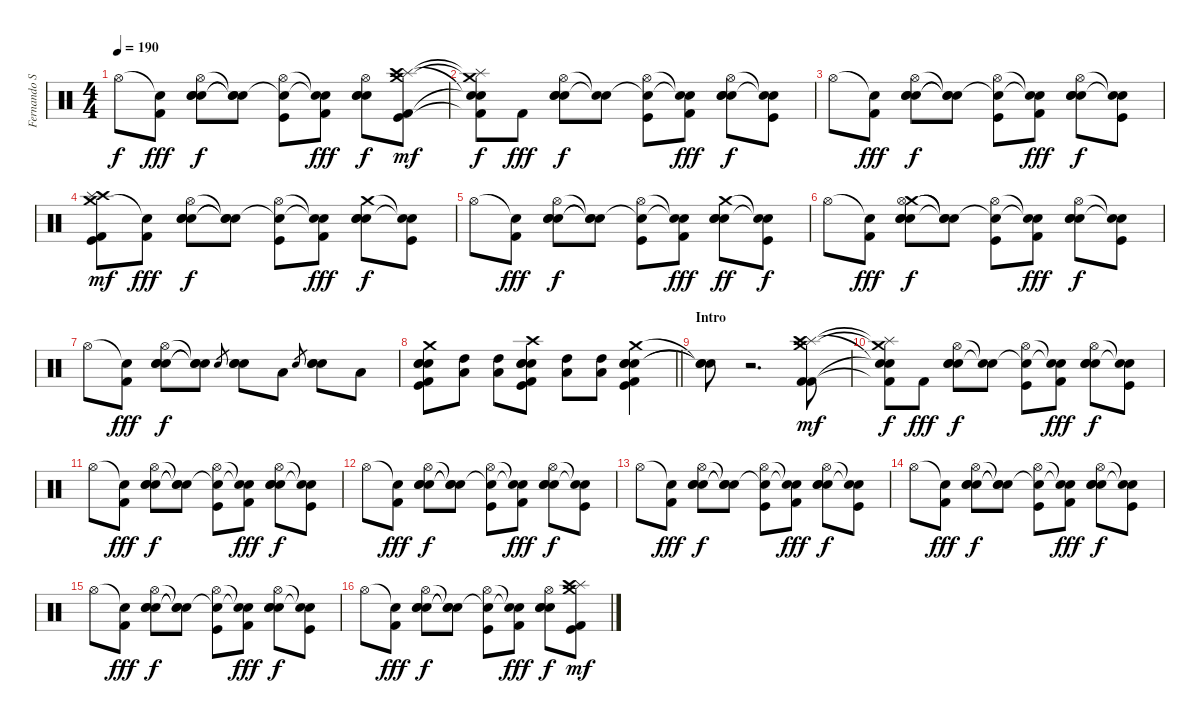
\track ("Fernando Sarcella" "Fernando S") {instrument percussion}
\staff {score}
\articulation defaults
\ts (4 4)
\tempo 190
\clef neutral
\ks c "Hi-Hat (open)".8{dy f}
("Snare (hit)"{t} "Kick (hit) 2").8{dy fff} ("Hi-Hat (open)" "Electric Snare (hit)" "Electric Snare (hit)" "Electric Snare (hit)").8{dy f} ("Snare (hit)"{t} "Snare (hit)"{t} "Snare (hit)"{t}).8 ("Hi-Hat (open)" "Snare (hit)"{t} "Kick (hit)").8 ("Snare (hit)"{t} "Snare (hit)"{t} "Kick (hit) 2").8{dy fff} ("Hi-Hat (open)" "Electric Snare (hit)" "Electric Snare (hit)" "Electric Snare (hit)").8{dy f} ("Crash medium (hit)" "Splash (hit)" "Crash high (hit)" "Kick (hit) 2" "Kick (hit)").8{dy mf} |
("Crash medium (hit)"{t} "Splash (hit)"{t} "Snare (hit)"{t} "Snare (hit)"{t} "Kick (hit) 2"{t}).8{dy f} "Kick (hit) 2".8{dy fff} ("Hi-Hat (open)" "Electric Snare (hit)" "Electric Snare (hit)" "Electric Snare (hit)").8{dy f} ("Snare (hit)"{t} "Snare (hit)"{t}).8 ("Hi-Hat (open)" "Snare (hit)"{t} "Kick (hit)").8 ("Snare (hit)"{t} "Snare (hit)"{t} "Kick (hit) 2").8{dy fff} ("Hi-Hat (open)" "Electric Snare (hit)" "Electric Snare (hit)" "Electric Snare (hit)").8{dy f} ("Snare (hit)"{t} "Snare (hit)"{t} "Kick (hit)").8 |
"Hi-Hat (open)".8 ("Snare (hit)"{t} "Kick (hit) 2").8{dy fff} ("Hi-Hat (open)" "Electric Snare (hit)" "Electric Snare (hit)" "Electric Snare (hit)").8{dy f} ("Snare (hit)"{t} "Snare (hit)"{t} "Snare (hit)"{t}).8 ("Hi-Hat (open)" "Snare (hit)"{t} "Kick (hit)").8 ("Snare (hit)"{t} "Snare (hit)"{t} "Kick (hit) 2").8{dy fff} ("Hi-Hat (open)" "Electric Snare (hit)" "Electric Snare (hit)" "Electric Snare (hit)").8{dy f} ("Snare (hit)"{t} "Snare (hit)"{t} "Kick (hit)").8 |
("Crash medium (hit)" "Crash high (hit)" "Splash (hit)" "Kick (hit) 2" "Kick (hit)").8{dy mf} ("Snare (hit)"{t} "Kick (hit) 2").8{dy fff} ("Hi-Hat (open)" "Electric Snare (hit)" "Electric Snare (hit)" "Electric Snare (hit)").8{dy f} ("Snare (hit)"{t} "Snare (hit)"{t} "Snare (hit)"{t}).8 ("Hi-Hat (open)" "Snare (hit)"{t} "Kick (hit)").8 ("Snare (hit)"{t} "Snare (hit)"{t} "Kick (hit) 2").8{dy fff} ("Crash medium (hit)" "Electric Snare (hit)" "Electric Snare (hit)" "Electric Snare (hit)").8{dy f} ("Snare (hit)"{t} "Snare (hit)"{t} "Kick (hit)").8 |
"Hi-Hat (open)".8 ("Snare (hit)"{t} "Kick (hit) 2").8{dy fff} ("Hi-Hat (open)" "Electric Snare (hit)" "Electric Snare (hit)" "Electric Snare (hit)").8{dy f} ("Snare (hit)"{t} "Snare (hit)"{t} "Snare (hit)"{t}).8 ("Hi-Hat (open)" "Snare (hit)"{t} "Kick (hit)").8 ("Snare (hit)"{t} "Snare (hit)"{t} "Kick (hit) 2").8{dy fff} ("Crash medium (hit)" "Electric Snare (hit)" "Electric Snare (hit)" "Electric Snare (hit)").8{dy ff} ("Snare (hit)"{t} "Snare (hit)"{t} "Kick (hit)").8{dy f} |
"Hi-Hat (open)".8 ("Snare (hit)"{t} "Kick (hit) 2").8{dy fff} ("Crash medium (hit)" "Hi-Hat (open)" "Electric Snare (hit)" "Electric Snare (hit)" "Electric Snare (hit)").8{dy f} ("Snare (hit)"{t} "Snare (hit)"{t} "Snare (hit)"{t}).8 ("Hi-Hat (open)" "Snare (hit)"{t} "Kick (hit)").8 ("Snare (hit)"{t} "Snare (hit)"{t} "Kick (hit) 2").8{dy fff} ("Hi-Hat (open)" "Electric Snare (hit)" "Electric Snare (hit)" "Electric Snare (hit)").8{dy f} ("Snare (hit)"{t} "Snare (hit)"{t} "Kick (hit)").8 |
"Hi-Hat (open)".8 ("Snare (hit)"{t} "Kick (hit) 2").8{dy fff} ("Hi-Hat (open)" "Electric Snare (hit)" "Electric Snare (hit)" "Electric Snare (hit)").8{dy f} ("Snare (hit)"{t} "Snare (hit)"{t} "Snare (hit)"{t}).8 "Electric Snare (hit)".8{gr} ("Electric Snare (hit)" "Electric Snare (hit)" "Electric Snare (hit)").8 "Low Tom (hit)".8 "Electric Snare (hit)".8{gr} ("Electric Snare (hit)" "Electric Snare (hit)" "Electric Snare (hit)").8 "Low Tom (hit)".8 |
\barLineRight lightlight
("Crash medium (hit)" "Electric Snare (hit)" "Electric Snare (hit)" "Electric Snare (hit)" "Kick (hit) 2" "Kick (hit)").8 ("Low Tom (hit)" "High Tom (hit)").8 ("Low Tom (hit)" "High Tom (hit)").8 ("Crash high (hit)" "Electric Snare (hit)" "Electric Snare (hit)" "Electric Snare (hit)" "Kick (hit)" "Kick (hit) 2").8 ("Low Tom (hit)" "High Tom (hit)").8 ("Low Tom (hit)" "High Tom (hit)").8 ("Crash medium (hit)" "Electric Snare (hit)" "Electric Snare (hit)" "Electric Snare (hit)" "Kick (hit) 2" "Kick (hit)").4 |
\section ("" "Intro")
("Snare (hit)"{t} "Snare (hit)"{t} "Snare (hit)"{t}).8 r.2{d} ("Crash medium (hit)" "Splash (hit)" "Crash high (hit)" "Kick (hit) 2" "Kick (hit) 2").8{dy mf} |
("Crash medium (hit)"{t} "Splash (hit)"{t} "Snare (hit)"{t} "Snare (hit)"{t} "Kick (hit) 2"{t}).8{dy f} "Kick (hit) 2".8{dy fff} ("Hi-Hat (open)" "Electric Snare (hit)" "Electric Snare (hit)" "Electric Snare (hit)").8{dy f} ("Snare (hit)"{t} "Snare (hit)"{t}).8 ("Hi-Hat (open)" "Snare (hit)"{t} "Kick (hit)").8 ("Snare (hit)"{t} "Snare (hit)"{t} "Kick (hit) 2").8{dy fff} ("Hi-Hat (open)" "Electric Snare (hit)" "Electric Snare (hit)" "Electric Snare (hit)").8{dy f} ("Snare (hit)"{t} "Snare (hit)"{t} "Kick (hit)").8 |
"Hi-Hat (open)".8 ("Snare (hit)"{t} "Kick (hit) 2").8{dy fff} ("Hi-Hat (open)" "Electric Snare (hit)" "Electric Snare (hit)" "Electric Snare (hit)").8{dy f} ("Snare (hit)"{t} "Snare (hit)"{t} "Snare (hit)"{t}).8 ("Hi-Hat (open)" "Snare (hit)"{t} "Kick (hit)").8 ("Snare (hit)"{t} "Snare (hit)"{t} "Kick (hit) 2").8{dy fff} ("Hi-Hat (open)" "Electric Snare (hit)" "Electric Snare (hit)" "Electric Snare (hit)").8{dy f} ("Snare (hit)"{t} "Snare (hit)"{t} "Kick (hit)").8 |
"Hi-Hat (open)".8 ("Snare (hit)"{t} "Kick (hit) 2").8{dy fff} ("Hi-Hat (open)" "Electric Snare (hit)" "Electric Snare (hit)" "Electric Snare (hit)").8{dy f} ("Snare (hit)"{t} "Snare (hit)"{t} "Snare (hit)"{t}).8 ("Hi-Hat (open)" "Snare (hit)"{t} "Kick (hit)").8 ("Snare (hit)"{t} "Snare (hit)"{t} "Kick (hit) 2").8{dy fff} ("Hi-Hat (open)" "Electric Snare (hit)" "Electric Snare (hit)" "Electric Snare (hit)").8{dy f} ("Snare (hit)"{t} "Snare (hit)"{t} "Kick (hit)").8 |
"Hi-Hat (open)".8 ("Snare (hit)"{t} "Kick (hit) 2").8{dy fff} ("Hi-Hat (open)" "Electric Snare (hit)" "Electric Snare (hit)" "Electric Snare (hit)").8{dy f} ("Snare (hit)"{t} "Snare (hit)"{t} "Snare (hit)"{t}).8 ("Hi-Hat (open)" "Snare (hit)"{t} "Kick (hit)").8 ("Snare (hit)"{t} "Snare (hit)"{t} "Kick (hit) 2").8{dy fff} ("Hi-Hat (open)" "Electric Snare (hit)" "Electric Snare (hit)" "Electric Snare (hit)").8{dy f} ("Snare (hit)"{t} "Snare (hit)"{t} "Kick (hit)").8 |
"Hi-Hat (open)".8 ("Snare (hit)"{t} "Kick (hit) 2").8{dy fff} ("Hi-Hat (open)" "Electric Snare (hit)" "Electric Snare (hit)" "Electric Snare (hit)").8{dy f} ("Snare (hit)"{t} "Snare (hit)"{t} "Snare (hit)"{t}).8 ("Hi-Hat (open)" "Snare (hit)"{t} "Kick (hit)").8 ("Snare (hit)"{t} "Snare (hit)"{t} "Kick (hit) 2").8{dy fff} ("Hi-Hat (open)" "Electric Snare (hit)" "Electric Snare (hit)" "Electric Snare (hit)").8{dy f} ("Snare (hit)"{t} "Snare (hit)"{t} "Kick (hit)").8 |
"Hi-Hat (open)".8 ("Snare (hit)"{t} "Kick (hit) 2").8{dy fff} ("Hi-Hat (open)" "Electric Snare (hit)" "Electric Snare (hit)" "Electric Snare (hit)").8{dy f} ("Snare (hit)"{t} "Snare (hit)"{t} "Snare (hit)"{t}).8 ("Hi-Hat (open)" "Snare (hit)"{t} "Kick (hit)").8 ("Snare (hit)"{t} "Snare (hit)"{t} "Kick (hit) 2").8{dy fff} ("Hi-Hat (open)" "Electric Snare (hit)" "Electric Snare (hit)" "Electric Snare (hit)").8{dy f} ("Snare (hit)"{t} "Snare (hit)"{t} "Kick (hit)").8 |
"Hi-Hat (open)".8 ("Snare (hit)"{t} "Kick (hit) 2").8{dy fff} ("Hi-Hat (open)" "Electric Snare (hit)" "Electric Snare (hit)" "Electric Snare (hit)").8{dy f} ("Snare (hit)"{t} "Snare (hit)"{t} "Snare (hit)"{t}).8 ("Hi-Hat (open)" "Snare (hit)"{t} "Kick (hit)").8 ("Snare (hit)"{t} "Snare (hit)"{t} "Kick (hit) 2").8{dy fff} ("Hi-Hat (open)" "Electric Snare (hit)" "Electric Snare (hit)" "Electric Snare (hit)").8{dy f} ("Crash medium (hit)" "Splash (hit)" "Crash high (hit)" "Kick (hit) 2" "Kick (hit)").8{dy mf}
